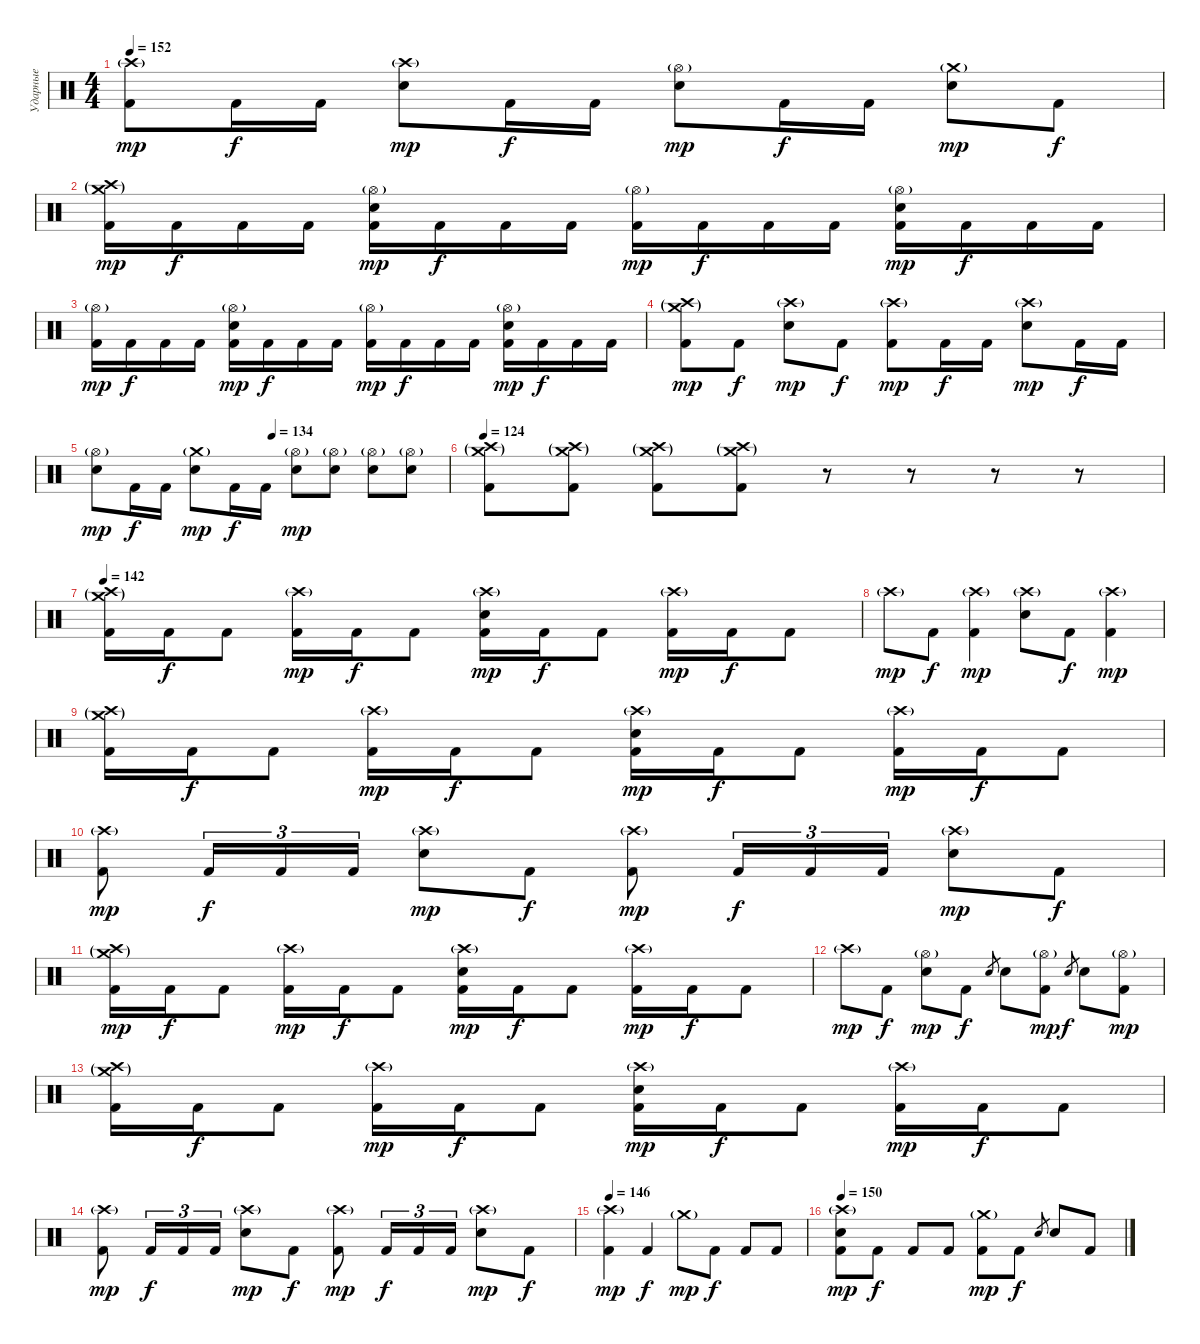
\track ("Ударные" "Ударные") {instrument percussion}
\staff {score}
\articulation defaults
\ts (4 4)
\tempo 152
\clef neutral
\ks c
("Crash high (hit)"{g} "Kick (hit) 2").8{dy mp} "Kick (hit) 2".16{dy f} "Kick (hit) 2".16 ("Crash high (hit)"{g} "Electric Snare (hit)").8{dy mp} "Kick (hit) 2".16{dy f} "Kick (hit) 2".16 ("Hi-Hat (open)"{g} "Electric Snare (hit)").8{dy mp} "Kick (hit) 2".16{dy f} "Kick (hit) 2".16 ("Crash medium (hit)"{g} "Electric Snare (hit)").8{dy mp} "Kick (hit) 2".8{dy f} |
("Crash high (hit)"{g} "Crash medium (hit)"{g} "Kick (hit) 2").16{dy mp} "Kick (hit) 2".16{dy f} "Kick (hit) 2".16 "Kick (hit) 2".16 ("Hi-Hat (open)"{g} "Electric Snare (hit)" "Kick (hit) 2").16{dy mp} "Kick (hit) 2".16{dy f} "Kick (hit) 2".16 "Kick (hit) 2".16 ("Hi-Hat (open)"{g} "Kick (hit) 2").16{dy mp} "Kick (hit) 2".16{dy f} "Kick (hit) 2".16 "Kick (hit) 2".16 ("Hi-Hat (open)"{g} "Electric Snare (hit)" "Kick (hit) 2").16{dy mp} "Kick (hit) 2".16{dy f} "Kick (hit) 2".16 "Kick (hit) 2".16 |
("Hi-Hat (open)"{g} "Kick (hit) 2").16{dy mp} "Kick (hit) 2".16{dy f} "Kick (hit) 2".16 "Kick (hit) 2".16 ("Hi-Hat (open)"{g} "Electric Snare (hit)" "Kick (hit) 2").16{dy mp} "Kick (hit) 2".16{dy f} "Kick (hit) 2".16 "Kick (hit) 2".16 ("Hi-Hat (open)"{g} "Kick (hit) 2").16{dy mp} "Kick (hit) 2".16{dy f} "Kick (hit) 2".16 "Kick (hit) 2".16 ("Hi-Hat (open)"{g} "Electric Snare (hit)" "Kick (hit) 2").16{dy mp} "Kick (hit) 2".16{dy f} "Kick (hit) 2".16 "Kick (hit) 2".16 |
("Crash high (hit)"{g} "Crash medium (hit)"{g} "Kick (hit) 2").8{dy mp} "Kick (hit) 2".8{dy f} ("Crash high (hit)"{g} "Electric Snare (hit)").8{dy mp} "Kick (hit) 2".8{dy f} ("Crash high (hit)"{g} "Kick (hit) 2").8{dy mp} "Kick (hit) 2".16{dy f} "Kick (hit) 2".16 ("Crash high (hit)"{g} "Electric Snare (hit)").8{dy mp} "Kick (hit) 2".16{dy f} "Kick (hit) 2".16 |
\tempo (138 0.5)
\tempo (134 0.5)
("Hi-Hat (open)"{g} "Electric Snare (hit)").8{dy mp} "Kick (hit) 2".16{dy f} "Kick (hit) 2".16 ("Crash medium (hit)"{g} "Electric Snare (hit)").8{dy mp} "Kick (hit) 2".16{dy f} "Kick (hit) 2".16 ("Hi-Hat (open)"{g} "Electric Snare (hit)").8{dy mp} ("Hi-Hat (open)"{g} "Electric Snare (hit)").8 ("Hi-Hat (open)"{g} "Electric Snare (hit)").8 ("Hi-Hat (open)"{g} "Electric Snare (hit)").8 |
\tempo 128
\tempo 124
("Crash medium (hit)"{g} "Crash high (hit)"{g} "Kick (hit) 2").8 ("Crash medium (hit)"{g} "Crash high (hit)"{g} "Kick (hit) 2").8 ("Crash medium (hit)"{g} "Crash high (hit)"{g} "Kick (hit) 2").8 ("Crash medium (hit)"{g} "Crash high (hit)"{g} "Kick (hit) 2").8 r.8 r.8{volume 0} r.8{volume 0} r.8 |
\tempo 142
("Crash high (hit)"{g} "Crash medium (hit)"{g} "Kick (hit) 2").16{volume 16} "Kick (hit) 2".16{dy f} "Kick (hit) 2".8 ("Crash high (hit)"{g} "Kick (hit) 2").16{dy mp} "Kick (hit) 2".16{dy f} "Kick (hit) 2".8 ("Crash high (hit)"{g} "Electric Snare (hit)" "Kick (hit) 2").16{dy mp} "Kick (hit) 2".16{dy f} "Kick (hit) 2".8 ("Crash high (hit)"{g} "Kick (hit) 2").16{dy mp} "Kick (hit) 2".16{dy f} "Kick (hit) 2".8 |
"Crash high (hit)"{g}.8{dy mp} "Kick (hit) 2".8{dy f} ("Crash high (hit)"{g} "Kick (hit) 2").4{dy mp} ("Crash high (hit)"{g} "Electric Snare (hit)").8 "Kick (hit) 2".8{dy f} ("Crash high (hit)"{g} "Kick (hit) 2").4{dy mp} |
("Crash high (hit)"{g} "Crash medium (hit)"{g} "Kick (hit) 2").16 "Kick (hit) 2".16{dy f} "Kick (hit) 2".8 ("Crash high (hit)"{g} "Kick (hit) 2").16{dy mp} "Kick (hit) 2".16{dy f} "Kick (hit) 2".8 ("Crash high (hit)"{g} "Electric Snare (hit)" "Kick (hit) 2").16{dy mp} "Kick (hit) 2".16{dy f} "Kick (hit) 2".8 ("Crash high (hit)"{g} "Kick (hit) 2").16{dy mp} "Kick (hit) 2".16{dy f} "Kick (hit) 2".8 |
("Crash high (hit)"{g} "Kick (hit) 2").8{dy mp} "Kick (hit) 2".16{tu (3 2) dy f} "Kick (hit) 2".16{tu (3 2)} "Kick (hit) 2".16{tu (3 2)} ("Crash high (hit)"{g} "Electric Snare (hit)").8{dy mp} "Kick (hit) 2".8{dy f} ("Crash high (hit)"{g} "Kick (hit) 2").8{dy mp} "Kick (hit) 2".16{tu (3 2) dy f} "Kick (hit) 2".16{tu (3 2)} "Kick (hit) 2".16{tu (3 2)} ("Crash high (hit)"{g} "Electric Snare (hit)").8{dy mp} "Kick (hit) 2".8{dy f} |
("Crash high (hit)"{g} "Crash medium (hit)"{g} "Kick (hit) 2").16{dy mp} "Kick (hit) 2".16{dy f} "Kick (hit) 2".8 ("Crash high (hit)"{g} "Kick (hit) 2").16{dy mp} "Kick (hit) 2".16{dy f} "Kick (hit) 2".8 ("Crash high (hit)"{g} "Electric Snare (hit)" "Kick (hit) 2").16{dy mp} "Kick (hit) 2".16{dy f} "Kick (hit) 2".8 ("Crash high (hit)"{g} "Kick (hit) 2").16{dy mp} "Kick (hit) 2".16{dy f} "Kick (hit) 2".8 |
"Crash high (hit)"{g}.8{dy mp} "Kick (hit) 2".8{dy f} ("Hi-Hat (open)"{g} "Electric Snare (hit)").8{dy mp} "Kick (hit) 2".8{dy f} "Electric Snare (hit)".8{gr} "Electric Snare (hit)".8 ("Hi-Hat (open)"{g} "Kick (hit) 2").8{dy mp} "Electric Snare (hit)".8{gr dy f} "Electric Snare (hit)".8 ("Hi-Hat (open)"{g} "Kick (hit) 2").8{dy mp} |
("Crash high (hit)"{g} "Crash medium (hit)"{g} "Kick (hit) 2").16 "Kick (hit) 2".16{dy f} "Kick (hit) 2".8 ("Crash high (hit)"{g} "Kick (hit) 2").16{dy mp} "Kick (hit) 2".16{dy f} "Kick (hit) 2".8 ("Crash high (hit)"{g} "Electric Snare (hit)" "Kick (hit) 2").16{dy mp} "Kick (hit) 2".16{dy f} "Kick (hit) 2".8 ("Crash high (hit)"{g} "Kick (hit) 2").16{dy mp} "Kick (hit) 2".16{dy f} "Kick (hit) 2".8 |
("Crash high (hit)"{g} "Kick (hit) 2").8{dy mp} "Kick (hit) 2".16{tu (3 2) dy f} "Kick (hit) 2".16{tu (3 2)} "Kick (hit) 2".16{tu (3 2)} ("Crash high (hit)"{g} "Electric Snare (hit)").8{dy mp} "Kick (hit) 2".8{dy f} ("Crash high (hit)"{g} "Kick (hit) 2").8{dy mp} "Kick (hit) 2".16{tu (3 2) dy f} "Kick (hit) 2".16{tu (3 2)} "Kick (hit) 2".16{tu (3 2)} ("Crash high (hit)"{g} "Electric Snare (hit)").8{dy mp} "Kick (hit) 2".8{dy f} |
\tempo 146
("Crash high (hit)"{g} "Kick (hit) 2").4{dy mp} "Kick (hit) 2".4{dy f} "Crash medium (hit)"{g}.8{dy mp} "Kick (hit) 2".8{dy f} "Kick (hit) 2".8 "Kick (hit) 2".8 |
\tempo 150
("Crash high (hit)"{g} "Electric Snare (hit)" "Kick (hit) 2").8{dy mp} "Kick (hit) 2".8{dy f} "Kick (hit) 2".8 "Kick (hit) 2".8 ("Crash medium (hit)"{g} "Kick (hit) 2").8{dy mp} "Kick (hit) 2".8{dy f} "Electric Snare (hit)".8{gr} "Electric Snare (hit)".8 "Kick (hit) 2".8
